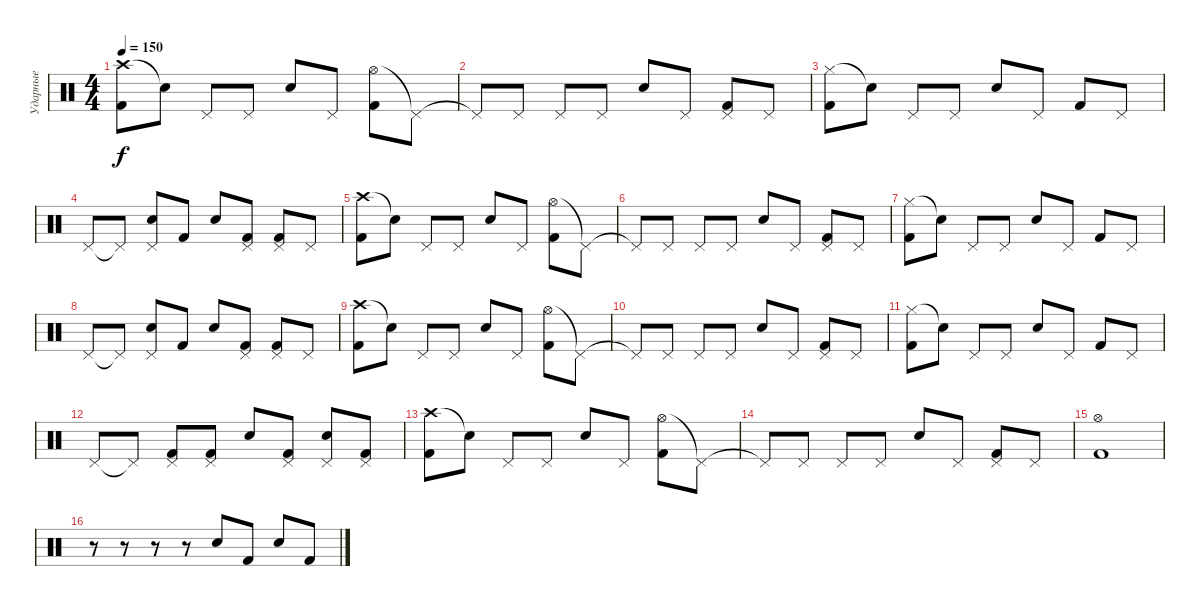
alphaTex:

\track ("Ударные" "Ударные") {instrument percussion}
\staff {score}
\articulation defaults
\ts (4 4)
\tempo 150
\clef neutral
\ks c
("Crash high (hit)" "Kick (hit) 2").8{dy f} "Snare (hit)"{t}.8 "Pedal Hi-Hat (hit)".8 "Pedal Hi-Hat (hit)".8 "Electric Snare (hit)".8 "Pedal Hi-Hat (hit)".8 ("Hi-Hat (open)" "Kick (hit) 2").8 "Pedal Hi-Hat (hit)"{t}.8 |
"Pedal Hi-Hat (hit)"{t}.8 "Pedal Hi-Hat (hit)".8 "Pedal Hi-Hat (hit)".8 "Pedal Hi-Hat (hit)".8 "Electric Snare (hit)".8 "Pedal Hi-Hat (hit)".8 ("Pedal Hi-Hat (hit)" "Kick (hit) 2").8 "Pedal Hi-Hat (hit)".8 |
("Hi-Hat (closed)" "Kick (hit) 2").8 "Snare (hit)"{t}.8 "Pedal Hi-Hat (hit)".8 "Pedal Hi-Hat (hit)".8 "Electric Snare (hit)".8 "Pedal Hi-Hat (hit)".8 "Kick (hit) 2".8 "Pedal Hi-Hat (hit)".8 |
"Pedal Hi-Hat (hit)".8 "Pedal Hi-Hat (hit)"{t}.8 ("Pedal Hi-Hat (hit)" "Electric Snare (hit)").8 "Kick (hit) 2".8 "Electric Snare (hit)".8 ("Pedal Hi-Hat (hit)" "Kick (hit) 2").8 ("Pedal Hi-Hat (hit)" "Kick (hit) 2").8 "Pedal Hi-Hat (hit)".8 |
("Crash high (hit)" "Kick (hit) 2").8 "Snare (hit)"{t}.8 "Pedal Hi-Hat (hit)".8 "Pedal Hi-Hat (hit)".8 "Electric Snare (hit)".8 "Pedal Hi-Hat (hit)".8 ("Hi-Hat (open)" "Kick (hit) 2").8 "Pedal Hi-Hat (hit)"{t}.8 |
"Pedal Hi-Hat (hit)"{t}.8 "Pedal Hi-Hat (hit)".8 "Pedal Hi-Hat (hit)".8 "Pedal Hi-Hat (hit)".8 "Electric Snare (hit)".8 "Pedal Hi-Hat (hit)".8 ("Pedal Hi-Hat (hit)" "Kick (hit) 2").8 "Pedal Hi-Hat (hit)".8 |
("Hi-Hat (closed)" "Kick (hit) 2").8 "Snare (hit)"{t}.8 "Pedal Hi-Hat (hit)".8 "Pedal Hi-Hat (hit)".8 "Electric Snare (hit)".8 "Pedal Hi-Hat (hit)".8 "Kick (hit) 2".8 "Pedal Hi-Hat (hit)".8 |
"Pedal Hi-Hat (hit)".8 "Pedal Hi-Hat (hit)"{t}.8 ("Pedal Hi-Hat (hit)" "Electric Snare (hit)").8 "Kick (hit) 2".8 "Electric Snare (hit)".8 ("Pedal Hi-Hat (hit)" "Kick (hit) 2").8 ("Pedal Hi-Hat (hit)" "Kick (hit) 2").8 "Pedal Hi-Hat (hit)".8 |
("Crash high (hit)" "Kick (hit) 2").8 "Snare (hit)"{t}.8 "Pedal Hi-Hat (hit)".8 "Pedal Hi-Hat (hit)".8 "Electric Snare (hit)".8 "Pedal Hi-Hat (hit)".8 ("Hi-Hat (open)" "Kick (hit) 2").8 "Pedal Hi-Hat (hit)"{t}.8 |
"Pedal Hi-Hat (hit)"{t}.8 "Pedal Hi-Hat (hit)".8 "Pedal Hi-Hat (hit)".8 "Pedal Hi-Hat (hit)".8 "Electric Snare (hit)".8 "Pedal Hi-Hat (hit)".8 ("Pedal Hi-Hat (hit)" "Kick (hit) 2").8 "Pedal Hi-Hat (hit)".8 |
("Hi-Hat (closed)" "Kick (hit) 2").8 "Snare (hit)"{t}.8 "Pedal Hi-Hat (hit)".8 "Pedal Hi-Hat (hit)".8 "Electric Snare (hit)".8 "Pedal Hi-Hat (hit)".8 "Kick (hit) 2".8 "Pedal Hi-Hat (hit)".8 |
"Pedal Hi-Hat (hit)".8 "Pedal Hi-Hat (hit)"{t}.8 ("Pedal Hi-Hat (hit)" "Kick (hit) 2").8 ("Pedal Hi-Hat (hit)" "Kick (hit) 2").8 "Electric Snare (hit)".8 ("Pedal Hi-Hat (hit)" "Kick (hit) 2").8 ("Pedal Hi-Hat (hit)" "Electric Snare (hit)").8 ("Pedal Hi-Hat (hit)" "Kick (hit) 2").8 |
("Crash high (hit)" "Kick (hit) 2").8 "Snare (hit)"{t}.8 "Pedal Hi-Hat (hit)".8 "Pedal Hi-Hat (hit)".8 "Electric Snare (hit)".8 "Pedal Hi-Hat (hit)".8 ("Hi-Hat (open)" "Kick (hit) 2").8 "Pedal Hi-Hat (hit)"{t}.8 |
"Pedal Hi-Hat (hit)"{t}.8 "Pedal Hi-Hat (hit)".8 "Pedal Hi-Hat (hit)".8 "Pedal Hi-Hat (hit)".8 "Electric Snare (hit)".8 "Pedal Hi-Hat (hit)".8 ("Pedal Hi-Hat (hit)" "Kick (hit) 2").8 "Pedal Hi-Hat (hit)".8 |
("Hi-Hat (open)" "Kick (hit) 2").1 |
r.8 r.8 r.8 r.8 "Electric Snare (hit)".8 "Kick (hit) 2".8 "Electric Snare (hit)".8 "Kick (hit) 2".8
